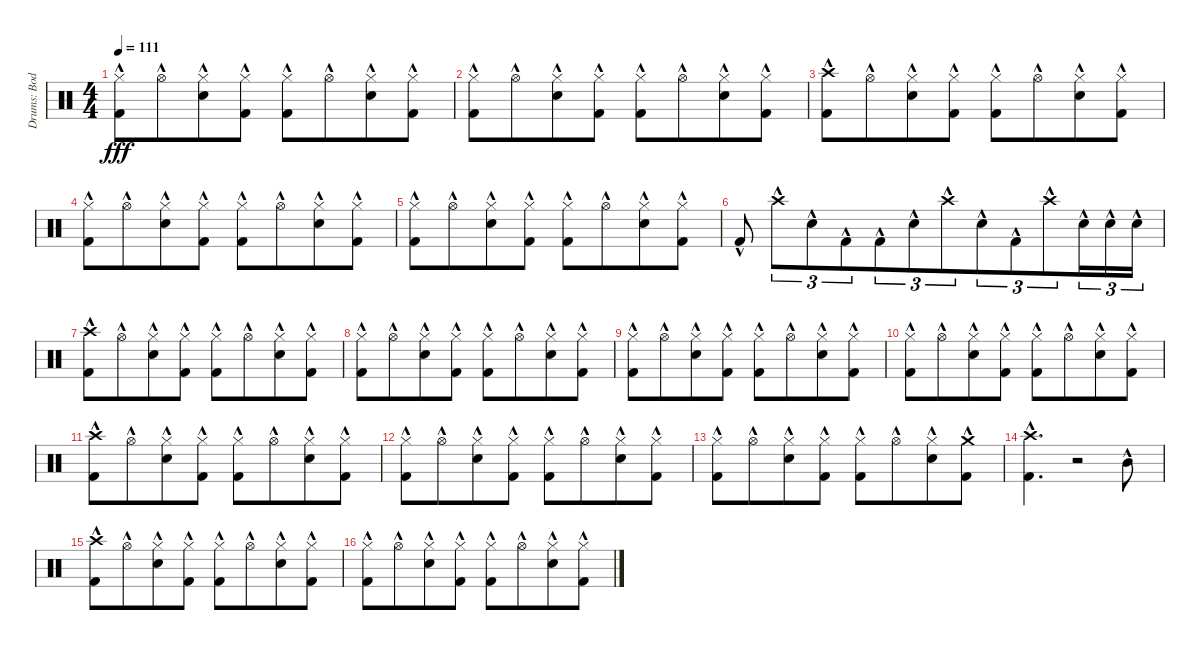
\track ("Drums: Bodo" "Drums: Bod") {instrument percussion}
\staff {score}
\articulation defaults
\ts (4 4)
\tempo 111
\clef neutral
\ks c
("Hi-Hat (closed)"{hac} "Kick (hit) 2"{hac}).8{dy fff} "Hi-Hat (open)"{hac}.8{beam merge} ("Hi-Hat (closed)"{hac} "Electric Snare (hit)"{hac}).8 ("Hi-Hat (closed)"{hac} "Kick (hit) 2"{hac}).8 ("Hi-Hat (closed)"{hac} "Kick (hit) 2"{hac}).8 "Hi-Hat (open)"{hac}.8{beam merge} ("Hi-Hat (closed)"{hac} "Electric Snare (hit)"{hac}).8 ("Hi-Hat (closed)"{hac} "Kick (hit) 2"{hac}).8 |
("Hi-Hat (closed)"{hac} "Kick (hit) 2"{hac}).8 "Hi-Hat (open)"{hac}.8{beam merge} ("Hi-Hat (closed)"{hac} "Electric Snare (hit)"{hac}).8 ("Hi-Hat (closed)"{hac} "Kick (hit) 2"{hac}).8 ("Hi-Hat (closed)"{hac} "Kick (hit) 2"{hac}).8 "Hi-Hat (open)"{hac}.8{beam merge} ("Hi-Hat (closed)"{hac} "Electric Snare (hit)"{hac}).8 ("Hi-Hat (closed)"{hac} "Kick (hit) 2"{hac}).8 |
("Crash high (hit)"{hac} "Kick (hit) 2"{hac}).8 "Hi-Hat (open)"{hac}.8{beam merge} ("Hi-Hat (closed)"{hac} "Electric Snare (hit)"{hac}).8 ("Hi-Hat (closed)"{hac} "Kick (hit) 2"{hac}).8 ("Hi-Hat (closed)"{hac} "Kick (hit) 2"{hac}).8 "Hi-Hat (open)"{hac}.8{beam merge} ("Hi-Hat (closed)"{hac} "Electric Snare (hit)"{hac}).8 ("Hi-Hat (closed)"{hac} "Kick (hit) 2"{hac}).8 |
("Hi-Hat (closed)"{hac} "Kick (hit) 2"{hac}).8 "Hi-Hat (open)"{hac}.8{beam merge} ("Hi-Hat (closed)"{hac} "Electric Snare (hit)"{hac}).8 ("Hi-Hat (closed)"{hac} "Kick (hit) 2"{hac}).8 ("Hi-Hat (closed)"{hac} "Kick (hit) 2"{hac}).8 "Hi-Hat (open)"{hac}.8{beam merge} ("Hi-Hat (closed)"{hac} "Electric Snare (hit)"{hac}).8 ("Hi-Hat (closed)"{hac} "Kick (hit) 2"{hac}).8 |
("Hi-Hat (closed)"{hac} "Kick (hit) 2"{hac}).8 "Hi-Hat (open)"{hac}.8{beam merge} ("Hi-Hat (closed)"{hac} "Electric Snare (hit)"{hac}).8 ("Hi-Hat (closed)"{hac} "Kick (hit) 2"{hac}).8 ("Hi-Hat (closed)"{hac} "Kick (hit) 2"{hac}).8 "Hi-Hat (open)"{hac}.8{beam merge} ("Hi-Hat (closed)"{hac} "Electric Snare (hit)"{hac}).8 ("Hi-Hat (closed)"{hac} "Kick (hit) 2"{hac}).8 |
"Kick (hit) 2"{hac}.8 "Crash high (hit)"{hac}.8{tu (3 2) beam merge} "Electric Snare (hit)"{hac}.8{tu (3 2)} "Kick (hit) 2"{hac}.8{tu (3 2) beam merge} "Kick (hit) 2"{hac}.8{tu (3 2) beam merge} "Electric Snare (hit)"{hac}.8{tu (3 2)} "Crash high (hit)"{hac}.8{tu (3 2) beam merge} "Electric Snare (hit)"{hac}.8{tu (3 2)} "Kick (hit) 2"{hac}.8{tu (3 2) beam merge} "Crash high (hit)"{hac}.8{tu (3 2) beam merge} "Electric Snare (hit)"{hac}.16{tu (3 2) beam merge} "Electric Snare (hit)"{hac}.16{tu (3 2) beam merge} "Electric Snare (hit)"{hac}.16{tu (3 2)} |
("Crash high (hit)"{hac} "Kick (hit) 2"{hac}).8 "Hi-Hat (open)"{hac}.8{beam merge} ("Hi-Hat (closed)"{hac} "Electric Snare (hit)"{hac}).8 ("Hi-Hat (closed)"{hac} "Kick (hit) 2"{hac}).8 ("Hi-Hat (closed)"{hac} "Kick (hit) 2"{hac}).8 "Hi-Hat (open)"{hac}.8{beam merge} ("Hi-Hat (closed)"{hac} "Electric Snare (hit)"{hac}).8 ("Hi-Hat (closed)"{hac} "Kick (hit) 2"{hac}).8 |
("Hi-Hat (closed)"{hac} "Kick (hit) 2"{hac}).8 "Hi-Hat (open)"{hac}.8{beam merge} ("Hi-Hat (closed)"{hac} "Electric Snare (hit)"{hac}).8 ("Hi-Hat (closed)"{hac} "Kick (hit) 2"{hac}).8 ("Hi-Hat (closed)"{hac} "Kick (hit) 2"{hac}).8 "Hi-Hat (open)"{hac}.8{beam merge} ("Hi-Hat (closed)"{hac} "Electric Snare (hit)"{hac}).8 ("Hi-Hat (closed)"{hac} "Kick (hit) 2"{hac}).8 |
("Hi-Hat (closed)"{hac} "Kick (hit) 2"{hac}).8 "Hi-Hat (open)"{hac}.8{beam merge} ("Hi-Hat (closed)"{hac} "Electric Snare (hit)"{hac}).8 ("Hi-Hat (closed)"{hac} "Kick (hit) 2"{hac}).8 ("Hi-Hat (closed)"{hac} "Kick (hit) 2"{hac}).8 "Hi-Hat (open)"{hac}.8{beam merge} ("Hi-Hat (closed)"{hac} "Electric Snare (hit)"{hac}).8 ("Hi-Hat (closed)"{hac} "Kick (hit) 2"{hac}).8 |
("Hi-Hat (closed)"{hac} "Kick (hit) 2"{hac}).8 "Hi-Hat (open)"{hac}.8{beam merge} ("Hi-Hat (closed)"{hac} "Electric Snare (hit)"{hac}).8 ("Hi-Hat (closed)"{hac} "Kick (hit) 2"{hac}).8 ("Hi-Hat (closed)"{hac} "Kick (hit) 2"{hac}).8 "Hi-Hat (open)"{hac}.8{beam merge} ("Hi-Hat (closed)"{hac} "Electric Snare (hit)"{hac}).8 ("Hi-Hat (closed)"{hac} "Kick (hit) 2"{hac}).8 |
("Crash high (hit)"{hac} "Kick (hit) 2"{hac}).8 "Hi-Hat (open)"{hac}.8{beam merge} ("Hi-Hat (closed)"{hac} "Electric Snare (hit)"{hac}).8 ("Hi-Hat (closed)"{hac} "Kick (hit) 2"{hac}).8 ("Hi-Hat (closed)"{hac} "Kick (hit) 2"{hac}).8 "Hi-Hat (open)"{hac}.8{beam merge} ("Hi-Hat (closed)"{hac} "Electric Snare (hit)"{hac}).8 ("Hi-Hat (closed)"{hac} "Kick (hit) 2"{hac}).8 |
("Hi-Hat (closed)"{hac} "Kick (hit) 2"{hac}).8 "Hi-Hat (open)"{hac}.8{beam merge} ("Hi-Hat (closed)"{hac} "Electric Snare (hit)"{hac}).8 ("Hi-Hat (closed)"{hac} "Kick (hit) 2"{hac}).8 ("Hi-Hat (closed)"{hac} "Kick (hit) 2"{hac}).8 "Hi-Hat (open)"{hac}.8{beam merge} ("Hi-Hat (closed)"{hac} "Electric Snare (hit)"{hac}).8 ("Hi-Hat (closed)"{hac} "Kick (hit) 2"{hac}).8 |
("Hi-Hat (closed)"{hac} "Kick (hit) 2"{hac}).8 "Hi-Hat (open)"{hac}.8{beam merge} ("Hi-Hat (closed)"{hac} "Electric Snare (hit)"{hac}).8 ("Hi-Hat (closed)"{hac} "Kick (hit) 2"{hac}).8 ("Hi-Hat (closed)"{hac} "Kick (hit) 2"{hac}).8 "Hi-Hat (open)"{hac}.8{beam merge} ("Hi-Hat (closed)"{hac} "Electric Snare (hit)"{hac}).8 ("Crash medium (hit)"{hac} "Kick (hit) 2"{hac}).8 |
("Crash high (hit)"{hac} "Kick (hit) 2"{hac}).4{d} r.2 "Mid Tom (hit)"{hac}.8 |
("Crash high (hit)"{hac} "Kick (hit) 2"{hac}).8 "Hi-Hat (open)"{hac}.8{beam merge} ("Hi-Hat (closed)"{hac} "Electric Snare (hit)"{hac}).8 ("Hi-Hat (closed)"{hac} "Kick (hit) 2"{hac}).8 ("Hi-Hat (closed)"{hac} "Kick (hit) 2"{hac}).8 "Hi-Hat (open)"{hac}.8{beam merge} ("Hi-Hat (closed)"{hac} "Electric Snare (hit)"{hac}).8 ("Hi-Hat (closed)"{hac} "Kick (hit) 2"{hac}).8 |
("Hi-Hat (closed)"{hac} "Kick (hit) 2"{hac}).8 "Hi-Hat (open)"{hac}.8{beam merge} ("Hi-Hat (closed)"{hac} "Electric Snare (hit)"{hac}).8 ("Hi-Hat (closed)"{hac} "Kick (hit) 2"{hac}).8 ("Hi-Hat (closed)"{hac} "Kick (hit) 2"{hac}).8 "Hi-Hat (open)"{hac}.8{beam merge} ("Hi-Hat (closed)"{hac} "Electric Snare (hit)"{hac}).8 ("Hi-Hat (closed)"{hac} "Kick (hit) 2"{hac}).8
